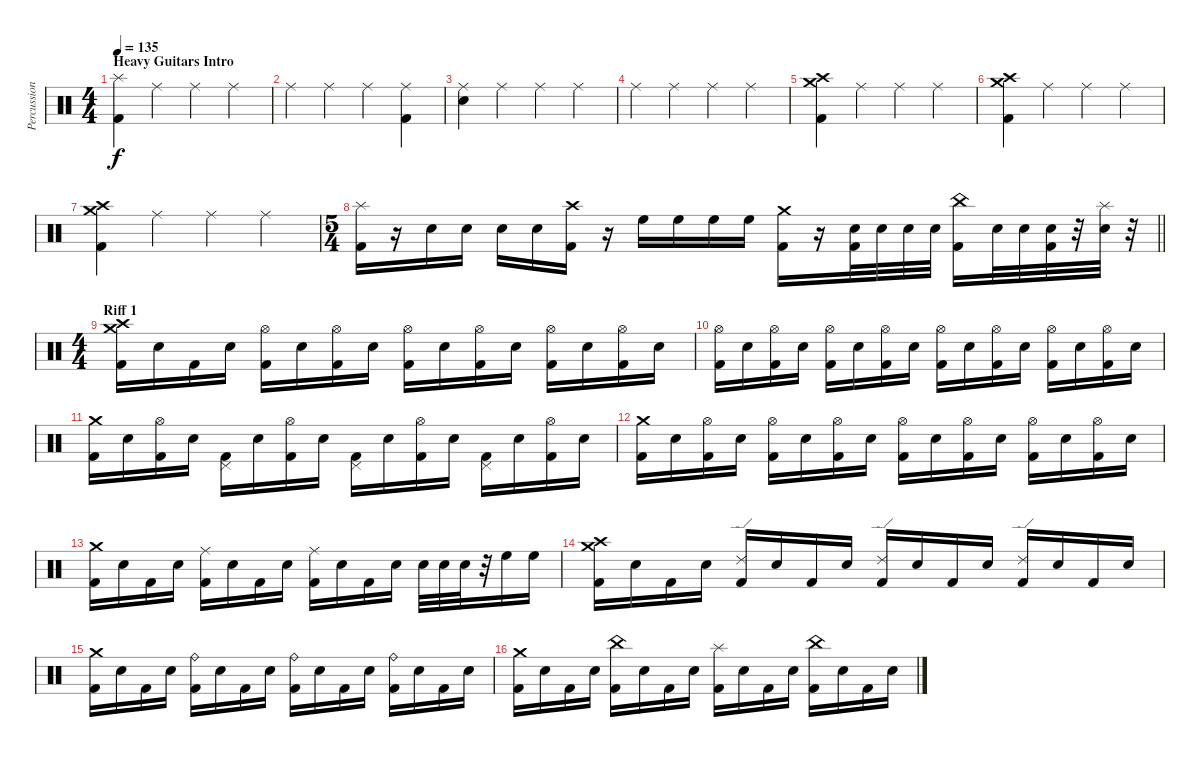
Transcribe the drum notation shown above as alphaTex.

\track ("Percussion" "Percussion") {instrument percussion}
\staff {score}
\articulation defaults
\ts (4 4)
\section ("" "Heavy Guitars Intro")
\tempo 135
\clef neutral
\ks c
("Splash (hit)" "Kick (hit) 2").4{dy f} "Ride (middle)".4 "Ride (middle)".4 "Ride (middle)".4 |
"Ride (middle)".4 "Ride (middle)".4 "Ride (middle)".4 ("Ride (middle)" "Kick (hit) 2").4 |
("Ride (middle)" "Electric Snare (hit)").4 "Ride (middle)".4 "Ride (middle)".4 "Ride (middle)".4 |
"Ride (middle)".4 "Ride (middle)".4 "Ride (middle)".4 "Ride (middle)".4 |
("Crash medium (hit)" "Crash high (hit)" "Kick (hit) 2").4 "Ride (middle)".4 "Ride (middle)".4 "Ride (middle)".4 |
("Crash medium (hit)" "Crash high (hit)" "Kick (hit) 2").4 "Ride (middle)".4 "Ride (middle)".4 "Ride (middle)".4 |
("Crash medium (hit)" "Crash high (hit)" "Kick (hit) 2").4 "Ride (middle)".4 "Ride (middle)".4 "Ride (middle)".4 |
\ts (5 4)
\barLineRight lightlight
("Splash (hit)" "Kick (hit) 2").16 r.16 "Electric Snare (hit)".16 "Electric Snare (hit)".16 "Electric Snare (hit)".16 "Electric Snare (hit)".16 ("Crash high (hit)" "Kick (hit) 2").16 r.16 "High Floor Tom (hit)".16 "High Floor Tom (hit)".16 "High Floor Tom (hit)".16 "High Floor Tom (hit)".16 ("Crash medium (hit)" "Kick (hit) 2").16 r.16 ("Electric Snare (hit)" "Kick (hit) 2").32 "Electric Snare (hit)".32 "Electric Snare (hit)".32 "Electric Snare (hit)".32 ("China (hit)" "Kick (hit) 2").16 "Electric Snare (hit)".32 "Electric Snare (hit)".32 ("Electric Snare (hit)" "Kick (hit) 2").32 r.32 ("Splash (hit)" "Electric Snare (hit)").32 r.32 |
\ts (4 4)
\section ("" "Riff 1")
("Crash medium (hit)" "Crash high (hit)" "Kick (hit) 2").16 "Electric Snare (hit)".16 "Kick (hit) 2".16 "Electric Snare (hit)".16 ("Hi-Hat (open)" "Kick (hit) 2").16 "Electric Snare (hit)".16 ("Hi-Hat (open)" "Kick (hit) 2").16 "Electric Snare (hit)".16 ("Hi-Hat (open)" "Kick (hit) 2").16 "Electric Snare (hit)".16 ("Hi-Hat (open)" "Kick (hit) 2").16 "Electric Snare (hit)".16 ("Hi-Hat (open)" "Kick (hit) 2").16 "Electric Snare (hit)".16 ("Hi-Hat (open)" "Kick (hit) 2").16 "Electric Snare (hit)".16 |
("Hi-Hat (open)" "Kick (hit) 2").16 "Electric Snare (hit)".16 ("Hi-Hat (open)" "Kick (hit) 2").16 "Electric Snare (hit)".16 ("Hi-Hat (open)" "Kick (hit) 2").16 "Electric Snare (hit)".16 ("Hi-Hat (open)" "Kick (hit) 2").16 "Electric Snare (hit)".16 ("Hi-Hat (open)" "Kick (hit) 2").16 "Electric Snare (hit)".16 ("Hi-Hat (open)" "Kick (hit) 2").16 "Electric Snare (hit)".16 ("Hi-Hat (open)" "Kick (hit) 2").16 "Electric Snare (hit)".16 ("Hi-Hat (open)" "Kick (hit) 2").16 "Electric Snare (hit)".16 |
("Crash medium (hit)" "Kick (hit) 2").16 "Electric Snare (hit)".16 ("Hi-Hat (open)" "Kick (hit) 2").16 "Electric Snare (hit)".16 ("Pedal Hi-Hat (hit)" "Kick (hit) 2").16 "Electric Snare (hit)".16 ("Hi-Hat (open)" "Kick (hit) 2").16 "Electric Snare (hit)".16 ("Pedal Hi-Hat (hit)" "Kick (hit) 2").16 "Electric Snare (hit)".16 ("Hi-Hat (open)" "Kick (hit) 2").16 "Electric Snare (hit)".16 ("Pedal Hi-Hat (hit)" "Kick (hit) 2").16 "Electric Snare (hit)".16 ("Hi-Hat (open)" "Kick (hit) 2").16 "Electric Snare (hit)".16 |
("Crash medium (hit)" "Kick (hit) 2").16 "Electric Snare (hit)".16 ("Hi-Hat (open)" "Kick (hit) 2").16 "Electric Snare (hit)".16 ("Hi-Hat (open)" "Kick (hit) 2").16 "Electric Snare (hit)".16 ("Hi-Hat (open)" "Kick (hit) 2").16 "Electric Snare (hit)".16 ("Hi-Hat (open)" "Kick (hit) 2").16 "Electric Snare (hit)".16 ("Hi-Hat (open)" "Kick (hit) 2").16 "Electric Snare (hit)".16 ("Hi-Hat (open)" "Kick (hit) 2").16 "Electric Snare (hit)".16 ("Hi-Hat (open)" "Kick (hit) 2").16 "Electric Snare (hit)".16 |
("Crash medium (hit)" "Kick (hit) 2").16 "Electric Snare (hit)".16 "Kick (hit) 2".16 "Electric Snare (hit)".16 ("Ride (middle)" "Kick (hit) 2").16 "Electric Snare (hit)".16 "Kick (hit) 2".16 "Electric Snare (hit)".16 ("Ride (middle)" "Kick (hit) 2").16 "Electric Snare (hit)".16 "Kick (hit) 2".16 "Electric Snare (hit)".16 "Electric Snare (hit)".32 "Electric Snare (hit)".32 "Electric Snare (hit)".32 r.32 "High Floor Tom (hit)".16 "High Floor Tom (hit)".16 |
("Crash medium (hit)" "Crash high (hit)" "Kick (hit) 2").16 "Electric Snare (hit)".16 "Kick (hit) 2".16 "Electric Snare (hit)".16 ("Ride (edge) 2" "Kick (hit) 2").16 "Electric Snare (hit)".16 "Kick (hit) 2".16 "Electric Snare (hit)".16 ("Ride (edge) 2" "Kick (hit) 2").16 "Electric Snare (hit)".16 "Kick (hit) 2".16 "Electric Snare (hit)".16 ("Ride (edge) 2" "Kick (hit) 2").16 "Electric Snare (hit)".16 "Kick (hit) 2".16 "Electric Snare (hit)".16 |
("Crash medium (hit)" "Kick (hit) 2").16 "Electric Snare (hit)".16 "Kick (hit) 2".16 "Electric Snare (hit)".16 ("Ride (bell)" "Kick (hit) 2").16 "Electric Snare (hit)".16 "Kick (hit) 2".16 "Electric Snare (hit)".16 ("Ride (bell)" "Kick (hit) 2").16 "Electric Snare (hit)".16 "Kick (hit) 2".16 "Electric Snare (hit)".16 ("Ride (bell)" "Kick (hit) 2").16 "Electric Snare (hit)".16 "Kick (hit) 2".16 "Electric Snare (hit)".16 |
("Crash medium (hit)" "Kick (hit) 2").16 "Electric Snare (hit)".16 "Kick (hit) 2".16 "Electric Snare (hit)".16 ("China (hit)" "Kick (hit) 2").16 "Electric Snare (hit)".16 "Kick (hit) 2".16 "Electric Snare (hit)".16 ("Splash (hit)" "Kick (hit) 2").16 "Electric Snare (hit)".16 "Kick (hit) 2".16 "Electric Snare (hit)".16 ("China (hit)" "Kick (hit) 2").16 "Electric Snare (hit)".16 "Kick (hit) 2".16 "Electric Snare (hit)".16
